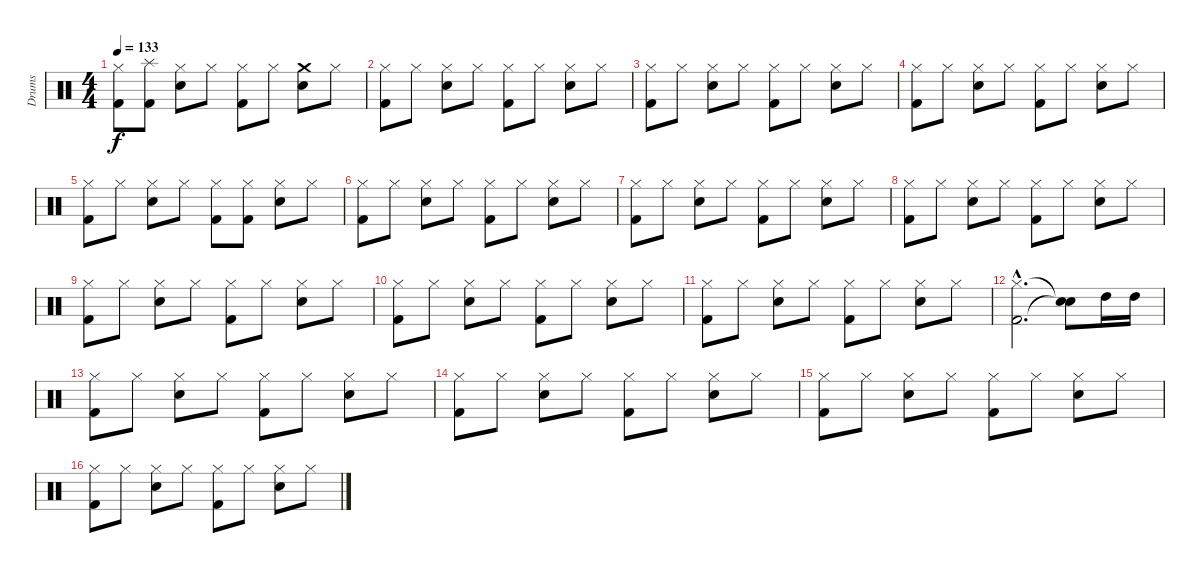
\track ("Drums" "Drums") {instrument percussion}
\staff {score}
\articulation defaults
\ts (4 4)
\tempo 133
\clef neutral
\ks c
("Kick (hit) 2" "Hi-Hat (closed)").8{dy f} ("Kick (hit) 2" "Splash (hit)").8 ("Snare (hit) 2" "Hi-Hat (closed)").8 "Hi-Hat (closed)".8 ("Kick (hit) 2" "Hi-Hat (closed)").8 "Hi-Hat (closed)".8 ("Snare (hit) 2" "Crash medium (hit)").8 "Hi-Hat (closed)".8 |
("Kick (hit) 2" "Hi-Hat (closed)").8 "Hi-Hat (closed)".8 ("Snare (hit) 2" "Hi-Hat (closed)").8 "Hi-Hat (closed)".8 ("Kick (hit) 2" "Hi-Hat (closed)").8 "Hi-Hat (closed)".8 ("Snare (hit) 2" "Hi-Hat (closed)").8 "Hi-Hat (closed)".8 |
("Kick (hit) 2" "Hi-Hat (closed)").8 "Hi-Hat (closed)".8 ("Snare (hit) 2" "Hi-Hat (closed)").8 "Hi-Hat (closed)".8 ("Kick (hit) 2" "Hi-Hat (closed)").8 "Hi-Hat (closed)".8 ("Snare (hit) 2" "Hi-Hat (closed)").8 "Hi-Hat (closed)".8 |
("Kick (hit) 2" "Hi-Hat (closed)").8 "Hi-Hat (closed)".8 ("Snare (hit) 2" "Hi-Hat (closed)").8 "Hi-Hat (closed)".8 ("Kick (hit) 2" "Hi-Hat (closed)").8 "Hi-Hat (closed)".8 ("Snare (hit) 2" "Hi-Hat (closed)").8 "Hi-Hat (closed)".8 |
("Kick (hit) 2" "Hi-Hat (closed)").8 "Hi-Hat (closed)".8 ("Snare (hit) 2" "Hi-Hat (closed)").8 "Hi-Hat (closed)".8 ("Kick (hit) 2" "Hi-Hat (closed)").8 ("Kick (hit) 2" "Hi-Hat (closed)").8 ("Snare (hit) 2" "Hi-Hat (closed)").8 "Hi-Hat (closed)".8 |
("Kick (hit) 2" "Hi-Hat (closed)").8 "Hi-Hat (closed)".8 ("Snare (hit) 2" "Hi-Hat (closed)").8 "Hi-Hat (closed)".8 ("Kick (hit) 2" "Hi-Hat (closed)").8 "Hi-Hat (closed)".8 ("Snare (hit) 2" "Hi-Hat (closed)").8 "Hi-Hat (closed)".8 |
("Kick (hit) 2" "Hi-Hat (closed)").8 "Hi-Hat (closed)".8 ("Snare (hit) 2" "Hi-Hat (closed)").8 "Hi-Hat (closed)".8 ("Kick (hit) 2" "Hi-Hat (closed)").8 "Hi-Hat (closed)".8 ("Snare (hit) 2" "Hi-Hat (closed)").8 "Hi-Hat (closed)".8 |
("Kick (hit) 2" "Hi-Hat (closed)").8 "Hi-Hat (closed)".8 ("Snare (hit) 2" "Hi-Hat (closed)").8 "Hi-Hat (closed)".8 ("Kick (hit) 2" "Hi-Hat (closed)").8 "Hi-Hat (closed)".8 ("Snare (hit) 2" "Hi-Hat (closed)").8 "Hi-Hat (closed)".8 |
("Kick (hit) 2" "Hi-Hat (closed)").8 "Hi-Hat (closed)".8 ("Snare (hit) 2" "Hi-Hat (closed)").8 "Hi-Hat (closed)".8 ("Kick (hit) 2" "Hi-Hat (closed)").8 "Hi-Hat (closed)".8 ("Snare (hit) 2" "Hi-Hat (closed)").8 "Hi-Hat (closed)".8 |
("Kick (hit) 2" "Hi-Hat (closed)").8 "Hi-Hat (closed)".8 ("Snare (hit) 2" "Hi-Hat (closed)").8 "Hi-Hat (closed)".8 ("Kick (hit) 2" "Hi-Hat (closed)").8 "Hi-Hat (closed)".8 ("Snare (hit) 2" "Hi-Hat (closed)").8 "Hi-Hat (closed)".8 |
("Kick (hit) 2" "Hi-Hat (closed)").8 "Hi-Hat (closed)".8 ("Snare (hit) 2" "Hi-Hat (closed)").8 "Hi-Hat (closed)".8 ("Kick (hit) 2" "Hi-Hat (closed)").8 "Hi-Hat (closed)".8 ("Snare (hit) 2" "Hi-Hat (closed)").8 "Hi-Hat (closed)".8 |
("Kick (hit) 2"{hac} "Hi-Hat (closed)"{hac}).2{d} ("Snare (hit)"{t} "Snare (hit)"{t}).8 "High Tom (hit)".16 "High Tom (hit)".16 |
("Kick (hit) 2" "Hi-Hat (closed)").8 "Hi-Hat (closed)".8 ("Snare (hit) 2" "Hi-Hat (closed)").8 "Hi-Hat (closed)".8 ("Kick (hit) 2" "Hi-Hat (closed)").8 "Hi-Hat (closed)".8 ("Snare (hit) 2" "Hi-Hat (closed)").8 "Hi-Hat (closed)".8 |
("Kick (hit) 2" "Hi-Hat (closed)").8 "Hi-Hat (closed)".8 ("Snare (hit) 2" "Hi-Hat (closed)").8 "Hi-Hat (closed)".8 ("Kick (hit) 2" "Hi-Hat (closed)").8 "Hi-Hat (closed)".8 ("Snare (hit) 2" "Hi-Hat (closed)").8 "Hi-Hat (closed)".8 |
("Kick (hit) 2" "Hi-Hat (closed)").8 "Hi-Hat (closed)".8 ("Snare (hit) 2" "Hi-Hat (closed)").8 "Hi-Hat (closed)".8 ("Kick (hit) 2" "Hi-Hat (closed)").8 "Hi-Hat (closed)".8 ("Snare (hit) 2" "Hi-Hat (closed)").8 "Hi-Hat (closed)".8 |
("Kick (hit) 2" "Hi-Hat (closed)").8 "Hi-Hat (closed)".8 ("Snare (hit) 2" "Hi-Hat (closed)").8 "Hi-Hat (closed)".8 ("Kick (hit) 2" "Hi-Hat (closed)").8 "Hi-Hat (closed)".8 ("Snare (hit) 2" "Hi-Hat (closed)").8 "Hi-Hat (closed)".8
